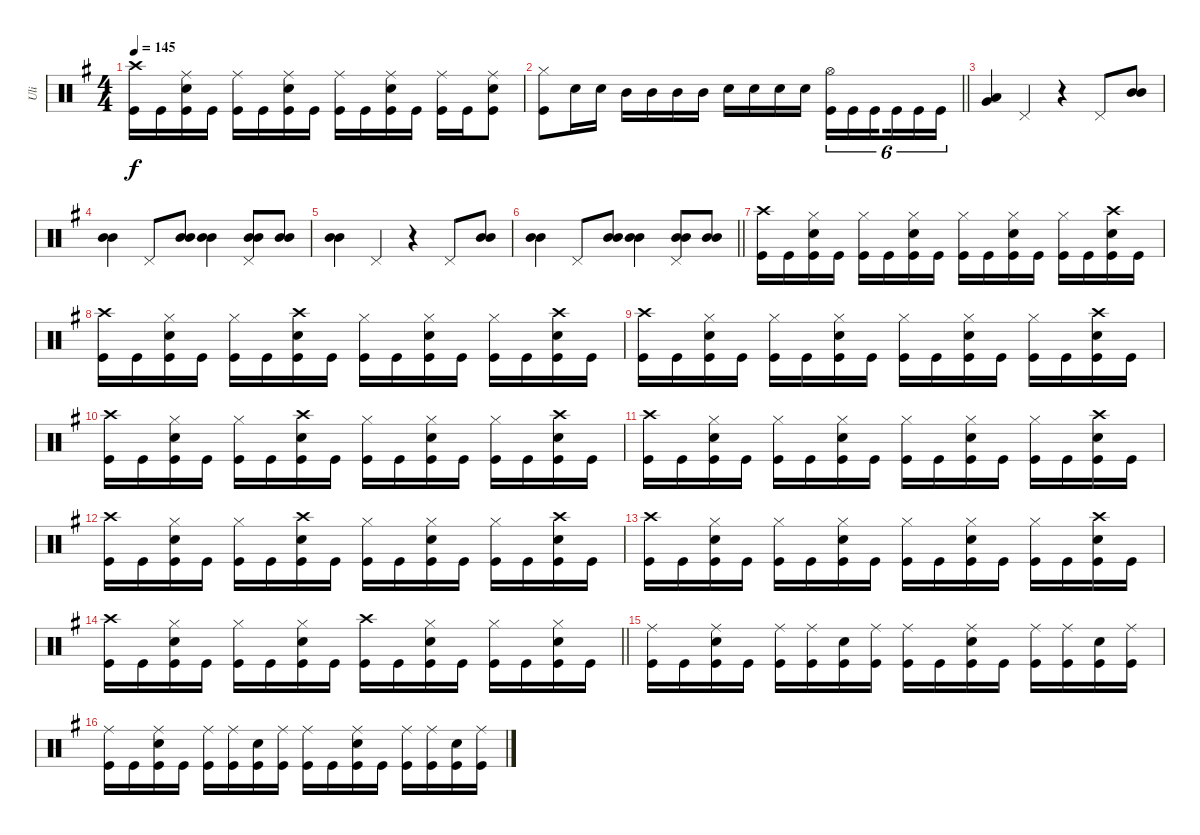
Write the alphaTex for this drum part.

\track ("Uli" "Uli") {instrument percussion}
\staff {score}
\articulation defaults
\ts (4 4)
\tempo 145
\clef neutral
\ks eminor
("Crash high (hit)" "Kick (hit)").16{dy f} "Kick (hit)".16 ("Ride (middle)" "Snare (hit) 2" "Kick (hit)").16 "Kick (hit)".16 ("Ride (middle)" "Kick (hit)").16 "Kick (hit)".16 ("Ride (middle)" "Snare (hit) 2" "Kick (hit)").16 "Kick (hit)".16 ("Ride (middle)" "Kick (hit)").16 "Kick (hit)".16 ("Ride (middle)" "Snare (hit) 2" "Kick (hit)").16 "Kick (hit)".16 ("Ride (middle)" "Kick (hit)").16 "Kick (hit)".16 ("Ride (middle)" "Snare (hit) 2" "Kick (hit)").8 |
\barLineRight lightlight
("Hi-Hat (closed)" "Kick (hit)").8 "Snare (hit) 2".16 "Snare (hit) 2".16 "Mid Tom (hit)".16 "Mid Tom (hit)".16 "Mid Tom (hit)".16 "Mid Tom (hit)".16 "Snare (hit) 2".16 "Snare (hit) 2".16 "Snare (hit) 2".16 "Snare (hit) 2".16 ("Hi-Hat (open)" "Kick (hit)").16{tu (6 4)} "Kick (hit)".16{tu (6 4)} "Kick (hit)".16{tu (6 4) beam splitsecondary} "Kick (hit)".16{tu (6 4)} "Kick (hit)".16{tu (6 4)} "Kick (hit)".16{tu (6 4)} |
("Low Tom (hit)" "Very Low Tom (hit)").4 "Pedal Hi-Hat (hit)".4 r.4 "Pedal Hi-Hat (hit)".8 ("Mid Tom (hit)" "Mid Tom (hit)").8 |
("Mid Tom (hit)" "Mid Tom (hit)").4 "Pedal Hi-Hat (hit)".8 ("Mid Tom (hit)" "Mid Tom (hit)").8 ("Mid Tom (hit)" "Mid Tom (hit)").4 ("Mid Tom (hit)" "Mid Tom (hit)" "Pedal Hi-Hat (hit)").8 ("Mid Tom (hit)" "Mid Tom (hit)").8 |
("Mid Tom (hit)" "Mid Tom (hit)").4 "Pedal Hi-Hat (hit)".4 r.4 "Pedal Hi-Hat (hit)".8 ("Mid Tom (hit)" "Mid Tom (hit)").8 |
\barLineRight lightlight
("Mid Tom (hit)" "Mid Tom (hit)").4 "Pedal Hi-Hat (hit)".8 ("Mid Tom (hit)" "Mid Tom (hit)").8 ("Mid Tom (hit)" "Mid Tom (hit)").4 ("Mid Tom (hit)" "Mid Tom (hit)" "Pedal Hi-Hat (hit)").8 ("Mid Tom (hit)" "Mid Tom (hit)").8 |
("Crash high (hit)" "Kick (hit)").16 "Kick (hit)".16 ("Hi-Hat (closed)" "Snare (hit) 2" "Kick (hit)").16 "Kick (hit)".16 ("Hi-Hat (closed)" "Kick (hit)").16 "Kick (hit)".16 ("Hi-Hat (closed)" "Snare (hit) 2" "Kick (hit)").16 "Kick (hit)".16 ("Hi-Hat (closed)" "Kick (hit)").16 "Kick (hit)".16 ("Hi-Hat (closed)" "Snare (hit) 2" "Kick (hit)").16 "Kick (hit)".16 ("Hi-Hat (closed)" "Kick (hit)").16 "Kick (hit)".16 ("Crash high (hit)" "Snare (hit) 2" "Kick (hit)").16 "Kick (hit)".16 |
("Crash high (hit)" "Kick (hit)").16 "Kick (hit)".16 ("Hi-Hat (closed)" "Snare (hit) 2" "Kick (hit)").16 "Kick (hit)".16 ("Hi-Hat (closed)" "Kick (hit)").16 "Kick (hit)".16 ("Crash high (hit)" "Snare (hit) 2" "Kick (hit)").16 "Kick (hit)".16 ("Hi-Hat (closed)" "Kick (hit)").16 "Kick (hit)".16 ("Hi-Hat (closed)" "Snare (hit) 2" "Kick (hit)").16 "Kick (hit)".16 ("Hi-Hat (closed)" "Kick (hit)").16 "Kick (hit)".16 ("Crash high (hit)" "Snare (hit) 2" "Kick (hit)").16 "Kick (hit)".16 |
("Crash high (hit)" "Kick (hit)").16 "Kick (hit)".16 ("Hi-Hat (closed)" "Snare (hit) 2" "Kick (hit)").16 "Kick (hit)".16 ("Hi-Hat (closed)" "Kick (hit)").16 "Kick (hit)".16 ("Hi-Hat (closed)" "Snare (hit) 2" "Kick (hit)").16 "Kick (hit)".16 ("Hi-Hat (closed)" "Kick (hit)").16 "Kick (hit)".16 ("Hi-Hat (closed)" "Snare (hit) 2" "Kick (hit)").16 "Kick (hit)".16 ("Hi-Hat (closed)" "Kick (hit)").16 "Kick (hit)".16 ("Crash high (hit)" "Snare (hit) 2" "Kick (hit)").16 "Kick (hit)".16 |
("Crash high (hit)" "Kick (hit)").16 "Kick (hit)".16 ("Hi-Hat (closed)" "Snare (hit) 2" "Kick (hit)").16 "Kick (hit)".16 ("Hi-Hat (closed)" "Kick (hit)").16 "Kick (hit)".16 ("Crash high (hit)" "Snare (hit) 2" "Kick (hit)").16 "Kick (hit)".16 ("Hi-Hat (closed)" "Kick (hit)").16 "Kick (hit)".16 ("Hi-Hat (closed)" "Snare (hit) 2" "Kick (hit)").16 "Kick (hit)".16 ("Hi-Hat (closed)" "Kick (hit)").16 "Kick (hit)".16 ("Crash high (hit)" "Snare (hit) 2" "Kick (hit)").16 "Kick (hit)".16 |
("Crash high (hit)" "Kick (hit)").16 "Kick (hit)".16 ("Hi-Hat (closed)" "Snare (hit) 2" "Kick (hit)").16 "Kick (hit)".16 ("Hi-Hat (closed)" "Kick (hit)").16 "Kick (hit)".16 ("Hi-Hat (closed)" "Snare (hit) 2" "Kick (hit)").16 "Kick (hit)".16 ("Hi-Hat (closed)" "Kick (hit)").16 "Kick (hit)".16 ("Hi-Hat (closed)" "Snare (hit) 2" "Kick (hit)").16 "Kick (hit)".16 ("Hi-Hat (closed)" "Kick (hit)").16 "Kick (hit)".16 ("Crash high (hit)" "Snare (hit) 2" "Kick (hit)").16 "Kick (hit)".16 |
("Crash high (hit)" "Kick (hit)").16 "Kick (hit)".16 ("Hi-Hat (closed)" "Snare (hit) 2" "Kick (hit)").16 "Kick (hit)".16 ("Hi-Hat (closed)" "Kick (hit)").16 "Kick (hit)".16 ("Crash high (hit)" "Snare (hit) 2" "Kick (hit)").16 "Kick (hit)".16 ("Hi-Hat (closed)" "Kick (hit)").16 "Kick (hit)".16 ("Hi-Hat (closed)" "Snare (hit) 2" "Kick (hit)").16 "Kick (hit)".16 ("Hi-Hat (closed)" "Kick (hit)").16 "Kick (hit)".16 ("Crash high (hit)" "Snare (hit) 2" "Kick (hit)").16 "Kick (hit)".16 |
("Crash high (hit)" "Kick (hit)").16 "Kick (hit)".16 ("Hi-Hat (closed)" "Snare (hit) 2" "Kick (hit)").16 "Kick (hit)".16 ("Hi-Hat (closed)" "Kick (hit)").16 "Kick (hit)".16 ("Hi-Hat (closed)" "Snare (hit) 2" "Kick (hit)").16 "Kick (hit)".16 ("Hi-Hat (closed)" "Kick (hit)").16 "Kick (hit)".16 ("Hi-Hat (closed)" "Snare (hit) 2" "Kick (hit)").16 "Kick (hit)".16 ("Hi-Hat (closed)" "Kick (hit)").16 "Kick (hit)".16 ("Crash high (hit)" "Snare (hit) 2" "Kick (hit)").16 "Kick (hit)".16 |
\barLineRight lightlight
("Crash high (hit)" "Kick (hit)").16 "Kick (hit)".16 ("Hi-Hat (closed)" "Snare (hit) 2" "Kick (hit)").16 "Kick (hit)".16 ("Hi-Hat (closed)" "Kick (hit)").16 "Kick (hit)".16 ("Hi-Hat (closed)" "Snare (hit) 2" "Kick (hit)").16 "Kick (hit)".16 ("Crash high (hit)" "Kick (hit)").16 "Kick (hit)".16 ("Hi-Hat (closed)" "Snare (hit) 2" "Kick (hit)").16 "Kick (hit)".16 ("Hi-Hat (closed)" "Kick (hit)").16 "Kick (hit)".16 ("Hi-Hat (closed)" "Snare (hit) 2" "Kick (hit)").16 "Kick (hit)".16 |
("Ride (middle)" "Kick (hit)").16 "Kick (hit)".16 ("Ride (middle)" "Snare (hit) 2" "Kick (hit)").16 "Kick (hit)".16 ("Ride (middle)" "Kick (hit)").16 ("Ride (middle)" "Kick (hit)").16 ("Snare (hit) 2" "Kick (hit)").16 ("Ride (middle)" "Kick (hit)").16 ("Ride (middle)" "Kick (hit)").16 "Kick (hit)".16 ("Ride (middle)" "Snare (hit) 2" "Kick (hit)").16 "Kick (hit)".16 ("Ride (middle)" "Kick (hit)").16 ("Ride (middle)" "Kick (hit)").16 ("Snare (hit) 2" "Kick (hit)").16 ("Ride (middle)" "Kick (hit)").16 |
("Ride (middle)" "Kick (hit)").16 "Kick (hit)".16 ("Ride (middle)" "Snare (hit) 2" "Kick (hit)").16 "Kick (hit)".16 ("Ride (middle)" "Kick (hit)").16 ("Ride (middle)" "Kick (hit)").16 ("Snare (hit) 2" "Kick (hit)").16 ("Ride (middle)" "Kick (hit)").16 ("Ride (middle)" "Kick (hit)").16 "Kick (hit)".16 ("Ride (middle)" "Snare (hit) 2" "Kick (hit)").16 "Kick (hit)".16 ("Ride (middle)" "Kick (hit)").16 ("Ride (middle)" "Kick (hit)").16 ("Snare (hit) 2" "Kick (hit)").16 ("Ride (middle)" "Kick (hit)").16
